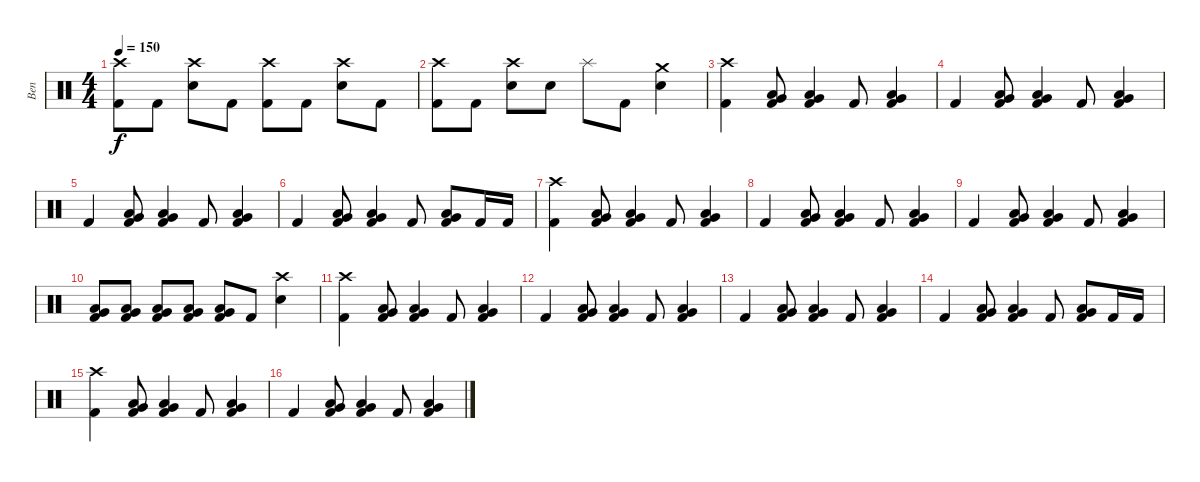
\track ("Ben" "Ben") {instrument percussion}
\staff {score}
\articulation defaults
\ts (4 4)
\tempo 150
\clef neutral
\ks c
("Crash high (hit)" "Kick (hit) 2").8{dy f} "Kick (hit) 2".8 ("Crash high (hit)" "Snare (hit) 2").8 "Kick (hit) 2".8 ("Crash high (hit)" "Kick (hit) 2").8 "Kick (hit) 2".8 ("Crash high (hit)" "Snare (hit) 2").8 "Kick (hit) 2".8 |
("Crash high (hit)" "Kick (hit) 2").8 "Kick (hit) 2".8 ("Crash high (hit)" "Snare (hit) 2").8 "Snare (hit) 2".8 "Splash (hit)".8 "Kick (hit) 2".8 ("Crash medium (hit)" "Snare (hit) 2").4 |
("Crash high (hit)" "Kick (hit) 2").4 ("Kick (hit) 2" "Very Low Tom (hit)" "Low Floor Tom (hit)").8 ("Kick (hit) 2" "Very Low Tom (hit)" "Low Floor Tom (hit)").4 "Kick (hit) 2".8 ("Kick (hit) 2" "Very Low Tom (hit)" "Low Floor Tom (hit)").4 |
"Kick (hit) 2".4 ("Kick (hit) 2" "Very Low Tom (hit)" "Low Floor Tom (hit)").8 ("Kick (hit) 2" "Very Low Tom (hit)" "Low Floor Tom (hit)").4 "Kick (hit) 2".8 ("Kick (hit) 2" "Very Low Tom (hit)" "Low Floor Tom (hit)").4 |
"Kick (hit) 2".4 ("Kick (hit) 2" "Very Low Tom (hit)" "Low Floor Tom (hit)").8 ("Kick (hit) 2" "Very Low Tom (hit)" "Low Floor Tom (hit)").4 "Kick (hit) 2".8 ("Kick (hit) 2" "Very Low Tom (hit)" "Low Floor Tom (hit)").4 |
"Kick (hit) 2".4 ("Kick (hit) 2" "Very Low Tom (hit)" "Low Floor Tom (hit)").8 ("Kick (hit) 2" "Very Low Tom (hit)" "Low Floor Tom (hit)").4 "Kick (hit) 2".8 ("Kick (hit) 2" "Very Low Tom (hit)" "Low Floor Tom (hit)").8 "Kick (hit) 2".16 "Kick (hit) 2".16 |
("Crash high (hit)" "Kick (hit) 2").4 ("Kick (hit) 2" "Very Low Tom (hit)" "Low Floor Tom (hit)").8 ("Kick (hit) 2" "Very Low Tom (hit)" "Low Floor Tom (hit)").4 "Kick (hit) 2".8 ("Kick (hit) 2" "Very Low Tom (hit)" "Low Floor Tom (hit)").4 |
"Kick (hit) 2".4 ("Kick (hit) 2" "Very Low Tom (hit)" "Low Floor Tom (hit)").8 ("Kick (hit) 2" "Very Low Tom (hit)" "Low Floor Tom (hit)").4 "Kick (hit) 2".8 ("Kick (hit) 2" "Very Low Tom (hit)" "Low Floor Tom (hit)").4 |
"Kick (hit) 2".4 ("Kick (hit) 2" "Very Low Tom (hit)" "Low Floor Tom (hit)").8 ("Kick (hit) 2" "Very Low Tom (hit)" "Low Floor Tom (hit)").4 "Kick (hit) 2".8 ("Kick (hit) 2" "Very Low Tom (hit)" "Low Floor Tom (hit)").4 |
("Kick (hit) 2" "Very Low Tom (hit)" "Low Floor Tom (hit)").8 ("Kick (hit) 2" "Very Low Tom (hit)" "Low Floor Tom (hit)").8 ("Kick (hit) 2" "Very Low Tom (hit)" "Low Floor Tom (hit)").8 ("Kick (hit) 2" "Very Low Tom (hit)" "Low Floor Tom (hit)").8 ("Kick (hit) 2" "Very Low Tom (hit)" "Low Floor Tom (hit)").8 "Kick (hit) 2".8 ("Crash high (hit)" "Snare (hit) 2").4 |
("Crash high (hit)" "Kick (hit) 2").4 ("Kick (hit) 2" "Very Low Tom (hit)" "Low Floor Tom (hit)").8 ("Kick (hit) 2" "Very Low Tom (hit)" "Low Floor Tom (hit)").4 "Kick (hit) 2".8 ("Kick (hit) 2" "Very Low Tom (hit)" "Low Floor Tom (hit)").4 |
"Kick (hit) 2".4 ("Kick (hit) 2" "Very Low Tom (hit)" "Low Floor Tom (hit)").8 ("Kick (hit) 2" "Very Low Tom (hit)" "Low Floor Tom (hit)").4 "Kick (hit) 2".8 ("Kick (hit) 2" "Very Low Tom (hit)" "Low Floor Tom (hit)").4 |
"Kick (hit) 2".4 ("Kick (hit) 2" "Very Low Tom (hit)" "Low Floor Tom (hit)").8 ("Kick (hit) 2" "Very Low Tom (hit)" "Low Floor Tom (hit)").4 "Kick (hit) 2".8 ("Kick (hit) 2" "Very Low Tom (hit)" "Low Floor Tom (hit)").4 |
"Kick (hit) 2".4 ("Kick (hit) 2" "Very Low Tom (hit)" "Low Floor Tom (hit)").8 ("Kick (hit) 2" "Very Low Tom (hit)" "Low Floor Tom (hit)").4 "Kick (hit) 2".8 ("Kick (hit) 2" "Very Low Tom (hit)" "Low Floor Tom (hit)").8 "Kick (hit) 2".16 "Kick (hit) 2".16 |
("Crash high (hit)" "Kick (hit) 2").4 ("Kick (hit) 2" "Very Low Tom (hit)" "Low Floor Tom (hit)").8 ("Kick (hit) 2" "Very Low Tom (hit)" "Low Floor Tom (hit)").4 "Kick (hit) 2".8 ("Kick (hit) 2" "Very Low Tom (hit)" "Low Floor Tom (hit)").4 |
"Kick (hit) 2".4 ("Kick (hit) 2" "Very Low Tom (hit)" "Low Floor Tom (hit)").8 ("Kick (hit) 2" "Very Low Tom (hit)" "Low Floor Tom (hit)").4 "Kick (hit) 2".8 ("Kick (hit) 2" "Very Low Tom (hit)" "Low Floor Tom (hit)").4
